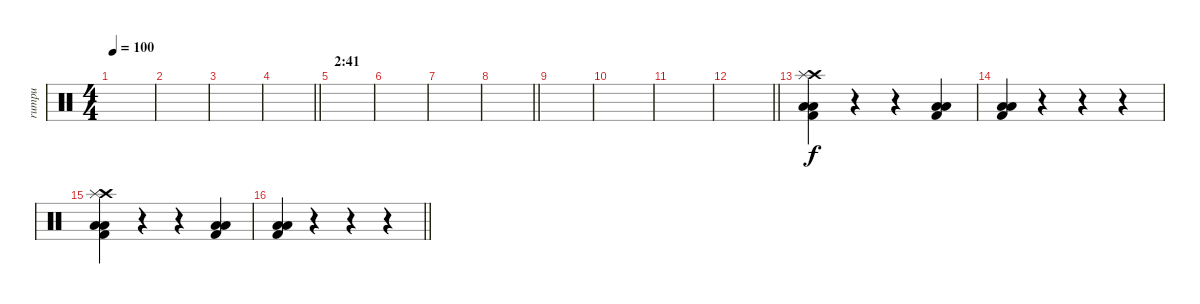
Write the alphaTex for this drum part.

\track ("rumpu" "rumpu") {instrument percussion}
\staff {score}
\articulation defaults
\ts (4 4)
\tempo 100
\clef neutral
\ks c
|
|
|
\barLineRight lightlight
|
\section ("" "2:41")
|
|
|
\barLineRight lightlight
|
|
|
|
\barLineRight lightlight
|
("Kick (hit) 2" "Low Tom (hit)" "Low Floor Tom (hit)" "Crash high (hit)" "Splash (hit)").4 r.4 r.4 ("Kick (hit) 2" "Low Tom (hit)" "Low Floor Tom (hit)").4 |
("Kick (hit) 2" "Low Tom (hit)" "Low Floor Tom (hit)").4 r.4 r.4 r.4 |
("Kick (hit) 2" "Low Tom (hit)" "Low Floor Tom (hit)" "Crash high (hit)" "Splash (hit)").4 r.4 r.4 ("Kick (hit) 2" "Low Tom (hit)" "Low Floor Tom (hit)").4 |
\barLineRight lightlight
("Kick (hit) 2" "Low Tom (hit)" "Low Floor Tom (hit)").4 r.4 r.4 r.4
